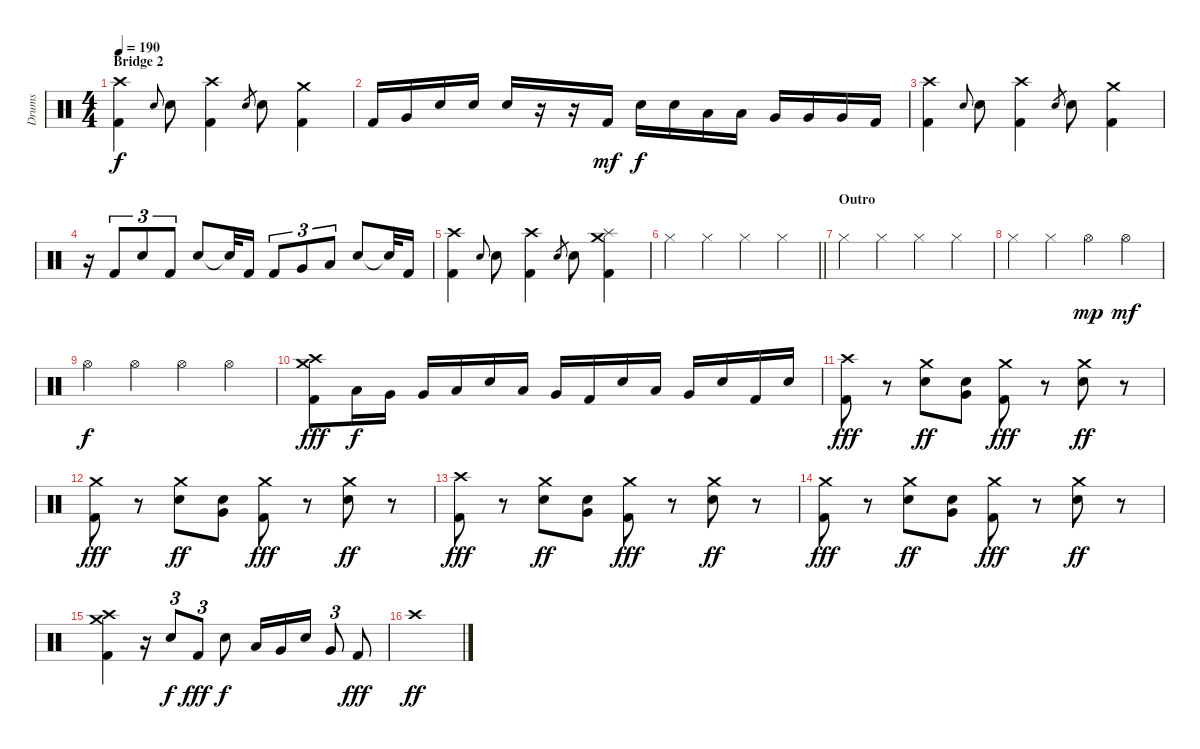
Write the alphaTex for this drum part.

\track ("Drums" "Drums") {instrument percussion}
\staff {score}
\articulation defaults
\ts (4 4)
\section ("" "Bridge 2")
\tempo 190
\clef neutral
\ks c
("Crash high (hit)" "Kick (hit) 2").4{dy f} "Electric Snare (hit)".8{gr onbeat} "Electric Snare (hit)".8 ("Crash high (hit)" "Kick (hit) 2").4 "Electric Snare (hit)".8{gr} "Electric Snare (hit)".8 ("Crash medium (hit)" "Kick (hit) 2").4 |
"Kick (hit) 2".16 "Very Low Tom (hit)".16 "Electric Snare (hit)".16 "Electric Snare (hit)".16 "Electric Snare (hit)".16 r.16 r.16 "Kick (hit) 2".16{dy mf} "Electric Snare (hit)".16{dy f} "Electric Snare (hit)".16 "Low Tom (hit)".16 "Low Tom (hit)".16 "Very Low Tom (hit)".16 "Very Low Tom (hit)".16 "Very Low Tom (hit)".16 "Kick (hit) 2".16 |
("Crash high (hit)" "Kick (hit) 2").4 "Electric Snare (hit)".8{gr onbeat} "Electric Snare (hit)".8 ("Crash high (hit)" "Kick (hit) 2").4 "Electric Snare (hit)".8{gr} "Electric Snare (hit)".8 ("Crash medium (hit)" "Kick (hit) 2").4 |
r.16 "Kick (hit) 2".8{tu (3 2)} "Electric Snare (hit)".8{tu (3 2)} "Kick (hit) 2".8{tu (3 2)} "Electric Snare (hit)".8 "Snare (hit)"{t}.32 "Kick (hit) 2".16 "Kick (hit) 2".8{tu (3 2)} "Very Low Tom (hit)".8{tu (3 2)} "Low Tom (hit)".8{tu (3 2)} "Electric Snare (hit)".8 "Snare (hit)"{t}.32 "Kick (hit) 2".16 |
("Crash high (hit)" "Kick (hit) 2").4 "Electric Snare (hit)".8{gr onbeat} "Electric Snare (hit)".8 ("Crash high (hit)" "Kick (hit) 2").4 "Electric Snare (hit)".8{gr} "Electric Snare (hit)".8 ("Crash medium (hit)" "Splash (hit)" "Kick (hit) 2").4 |
\barLineRight lightlight "Hi-Hat (closed)".4 "Hi-Hat (closed)".4 "Hi-Hat (closed)".4 "Hi-Hat (closed)".4
|
\section ("" "Outro")
"Hi-Hat (closed)".4 "Hi-Hat (closed)".4 "Hi-Hat (closed)".4 "Hi-Hat (closed)".4 |
"Hi-Hat (closed)".4 "Hi-Hat (closed)".4 "Hi-Hat (open)".4{dy mp} "Hi-Hat (open)".4{dy mf} |
"Hi-Hat (open)".4{dy f} "Hi-Hat (open)".4 "Hi-Hat (open)".4 "Hi-Hat (open)".4 |
("Crash high (hit)" "Crash medium (hit)" "Kick (hit) 2").8{dy fff} "Low Floor Tom (hit)".16{dy f} "Very Low Tom (hit)".16 "Very Low Tom (hit)".16 "Low Tom (hit)".16 "Electric Snare (hit)".16 "Low Tom (hit)".16 "Very Low Tom (hit)".16 "Kick (hit) 2".16 "Electric Snare (hit)".16 "Low Tom (hit)".16 "Very Low Tom (hit)".16 "Electric Snare (hit)".16 "Kick (hit) 2".16 "Electric Snare (hit)".16 |
("Crash high (hit)" "Kick (hit) 2").8{dy fff} r.8 ("Crash medium (hit)" "Electric Snare (hit)").8{dy ff} ("Electric Snare (hit)" "Very Low Tom (hit)").8 ("Crash medium (hit)" "Kick (hit) 2").8{dy fff} r.8 ("Crash medium (hit)" "Electric Snare (hit)").8{dy ff} r.8 |
("Crash medium (hit)" "Kick (hit) 2").8{dy fff} r.8 ("Crash medium (hit)" "Electric Snare (hit)").8{dy ff} ("Electric Snare (hit)" "Very Low Tom (hit)").8 ("Crash medium (hit)" "Kick (hit) 2").8{dy fff} r.8 ("Crash medium (hit)" "Electric Snare (hit)").8{dy ff} r.8 |
("Crash high (hit)" "Kick (hit) 2").8{dy fff} r.8 ("Crash medium (hit)" "Electric Snare (hit)").8{dy ff} ("Electric Snare (hit)" "Very Low Tom (hit)").8 ("Crash medium (hit)" "Kick (hit) 2").8{dy fff} r.8 ("Crash medium (hit)" "Electric Snare (hit)").8{dy ff} r.8 |
("Crash medium (hit)" "Kick (hit) 2").8{dy fff} r.8 ("Crash medium (hit)" "Electric Snare (hit)").8{dy ff} ("Electric Snare (hit)" "Very Low Tom (hit)").8 ("Crash medium (hit)" "Kick (hit) 2").8{dy fff} r.8 ("Crash medium (hit)" "Electric Snare (hit)").8{dy ff} r.8 |
("Crash medium (hit)" "Crash high (hit)" "Kick (hit) 2").4 r.16 "Electric Snare (hit)".8{tu (3 2) dy f} "Kick (hit) 2".8{tu (3 2) dy fff} "Electric Snare (hit)".8{dy f} "Low Tom (hit)".16 "Very Low Tom (hit)".16 "Electric Snare (hit)".16 "Very Low Tom (hit)".8{tu (3 2)} "Kick (hit) 2".8{dy fff} |
"Crash high (hit)".1{dy ff}
